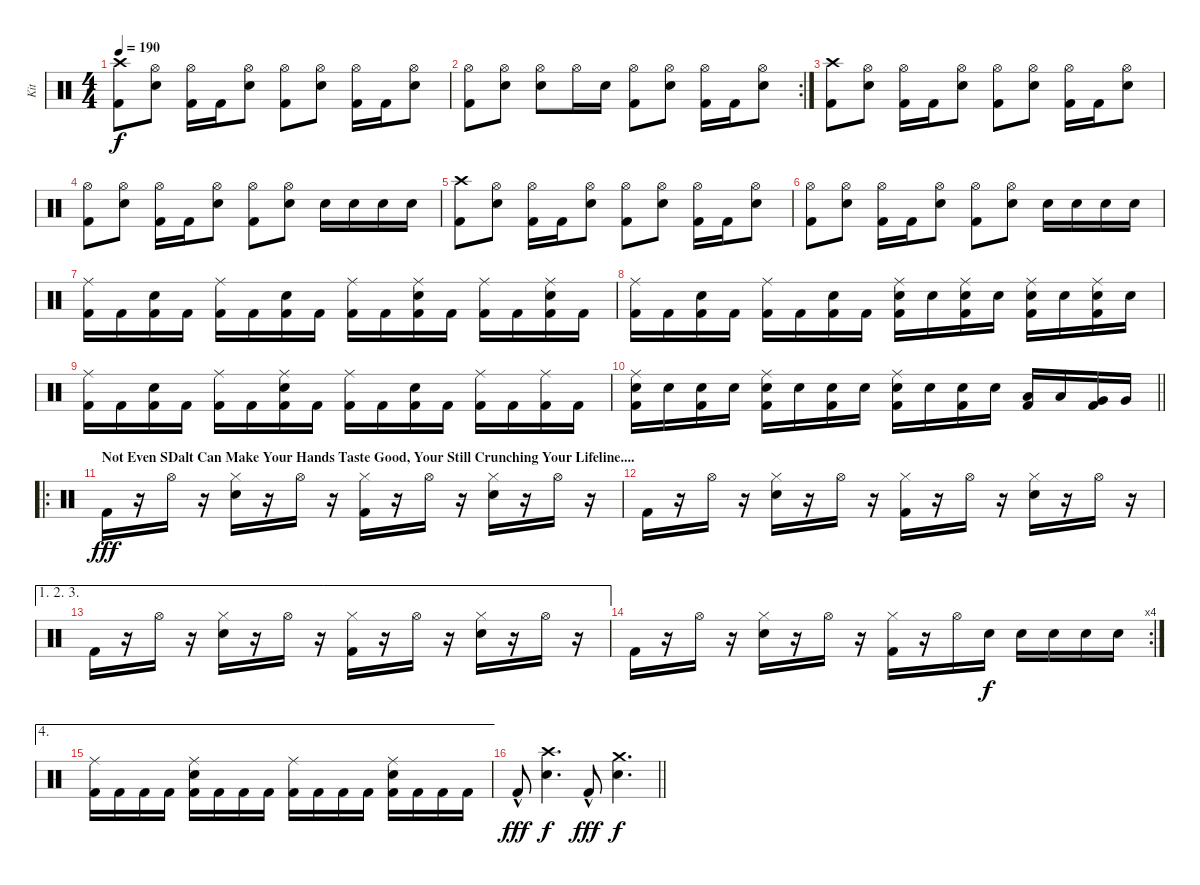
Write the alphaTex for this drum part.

\track ("Kit" "Kit") {instrument percussion}
\staff {score}
\articulation defaults
\ts (4 4)
\tempo 190
\clef neutral
\ks c
("Crash high (hit)" "Kick (hit) 2").8{dy f} ("Hi-Hat (open)" "Electric Snare (hit)").8 ("Hi-Hat (open)" "Kick (hit) 2").16 "Kick (hit) 2".16 ("Hi-Hat (open)" "Electric Snare (hit)").8 ("Hi-Hat (open)" "Kick (hit) 2").8 ("Hi-Hat (open)" "Electric Snare (hit)").8 ("Hi-Hat (open)" "Kick (hit) 2").16 "Kick (hit) 2".16 ("Hi-Hat (open)" "Electric Snare (hit)").8 |
\rc 2
("Hi-Hat (open)" "Kick (hit) 2").8 ("Hi-Hat (open)" "Electric Snare (hit)").8 ("Hi-Hat (open)" "Electric Snare (hit)").8 "Hi-Hat (open)".16 "Electric Snare (hit)".16 ("Hi-Hat (open)" "Kick (hit) 2").8 ("Hi-Hat (open)" "Electric Snare (hit)").8 ("Hi-Hat (open)" "Kick (hit) 2").16 "Kick (hit) 2".16 ("Hi-Hat (open)" "Electric Snare (hit)").8 |
("Crash high (hit)" "Kick (hit) 2").8 ("Hi-Hat (open)" "Electric Snare (hit)").8 ("Hi-Hat (open)" "Kick (hit) 2").16 "Kick (hit) 2".16 ("Hi-Hat (open)" "Electric Snare (hit)").8 ("Hi-Hat (open)" "Kick (hit) 2").8 ("Hi-Hat (open)" "Electric Snare (hit)").8 ("Hi-Hat (open)" "Kick (hit) 2").16 "Kick (hit) 2".16 ("Hi-Hat (open)" "Electric Snare (hit)").8 |
("Hi-Hat (open)" "Kick (hit) 2").8 ("Hi-Hat (open)" "Electric Snare (hit)").8 ("Hi-Hat (open)" "Kick (hit) 2").16 "Kick (hit) 2".16 ("Hi-Hat (open)" "Electric Snare (hit)").8 ("Hi-Hat (open)" "Kick (hit) 2").8 ("Hi-Hat (open)" "Electric Snare (hit)").8 "Electric Snare (hit)".16 "Electric Snare (hit)".16 "Electric Snare (hit)".16 "Electric Snare (hit)".16 |
("Crash high (hit)" "Kick (hit) 2").8 ("Hi-Hat (open)" "Electric Snare (hit)").8 ("Hi-Hat (open)" "Kick (hit) 2").16 "Kick (hit) 2".16 ("Hi-Hat (open)" "Electric Snare (hit)").8 ("Hi-Hat (open)" "Kick (hit) 2").8 ("Hi-Hat (open)" "Electric Snare (hit)").8 ("Hi-Hat (open)" "Kick (hit) 2").16 "Kick (hit) 2".16 ("Hi-Hat (open)" "Electric Snare (hit)").8 |
("Hi-Hat (open)" "Kick (hit) 2").8 ("Hi-Hat (open)" "Electric Snare (hit)").8 ("Hi-Hat (open)" "Kick (hit) 2").16 "Kick (hit) 2".16 ("Hi-Hat (open)" "Electric Snare (hit)").8 ("Hi-Hat (open)" "Kick (hit) 2").8 ("Hi-Hat (open)" "Electric Snare (hit)").8 "Electric Snare (hit)".16 "Electric Snare (hit)".16 "Electric Snare (hit)".16 "Electric Snare (hit)".16 |
("Ride (middle)" "Kick (hit) 2").16 "Kick (hit) 2".16 ("Electric Snare (hit)" "Kick (hit) 2").16 "Kick (hit) 2".16 ("Ride (middle)" "Kick (hit) 2").16 "Kick (hit) 2".16 ("Electric Snare (hit)" "Kick (hit) 2").16 "Kick (hit) 2".16 ("Ride (middle)" "Kick (hit) 2").16 "Kick (hit) 2".16 ("Ride (middle)" "Electric Snare (hit)" "Kick (hit) 2").16 "Kick (hit) 2".16 ("Ride (middle)" "Kick (hit) 2").16 "Kick (hit) 2".16 ("Ride (middle)" "Electric Snare (hit)" "Kick (hit) 2").16 "Kick (hit) 2".16 |
("Ride (middle)" "Kick (hit) 2").16 "Kick (hit) 2".16 ("Electric Snare (hit)" "Kick (hit) 2").16 "Kick (hit) 2".16 ("Ride (middle)" "Kick (hit) 2").16 "Kick (hit) 2".16 ("Electric Snare (hit)" "Kick (hit) 2").16 "Kick (hit) 2".16 ("Ride (middle)" "Electric Snare (hit)" "Kick (hit) 2").16 "Electric Snare (hit)".16 ("Ride (middle)" "Electric Snare (hit)" "Kick (hit) 2").16 "Electric Snare (hit)".16 ("Ride (middle)" "Electric Snare (hit)" "Kick (hit) 2").16 "Electric Snare (hit)".16 ("Ride (middle)" "Electric Snare (hit)" "Kick (hit) 2").16 "Electric Snare (hit)".16 |
("Ride (middle)" "Kick (hit) 2").16 "Kick (hit) 2".16 ("Electric Snare (hit)" "Kick (hit) 2").16 "Kick (hit) 2".16 ("Ride (middle)" "Kick (hit) 2").16 "Kick (hit) 2".16 ("Ride (middle)" "Electric Snare (hit)" "Kick (hit) 2").16 "Kick (hit) 2".16 ("Ride (middle)" "Kick (hit) 2").16 "Kick (hit) 2".16 ("Electric Snare (hit)" "Kick (hit) 2").16 "Kick (hit) 2".16 ("Ride (middle)" "Kick (hit) 2").16 "Kick (hit) 2".16 ("Ride (middle)" "Kick (hit) 2").16 "Kick (hit) 2".16 |
\barLineRight lightlight
("Ride (middle)" "Electric Snare (hit)" "Kick (hit) 2").16 "Electric Snare (hit)".16 ("Electric Snare (hit)" "Kick (hit) 2").16 "Electric Snare (hit)".16 ("Ride (middle)" "Electric Snare (hit)" "Kick (hit) 2").16 "Electric Snare (hit)".16 ("Electric Snare (hit)" "Kick (hit) 2").16 "Electric Snare (hit)".16 ("Ride (middle)" "Electric Snare (hit)" "Kick (hit) 2").16 "Electric Snare (hit)".16 ("Electric Snare (hit)" "Kick (hit) 2").16 "Electric Snare (hit)".16 ("Low Tom (hit)" "Kick (hit) 2").16 "Low Tom (hit)".16 ("Very Low Tom (hit)" "Kick (hit) 2").16 "Very Low Tom (hit)".16 |
\ro
\section ("" "Not Even SDalt Can Make Your Hands Taste Good, Your Still Crunching Your Lifeline....")
"Kick (hit) 2".16{dy fff} r.16 "Hi-Hat (open)".16 r.16 ("Hi-Hat (closed)" "Electric Snare (hit)").16 r.16 "Hi-Hat (open)".16 r.16 ("Hi-Hat (closed)" "Kick (hit) 2").16 r.16 "Hi-Hat (open)".16 r.16 ("Hi-Hat (closed)" "Electric Snare (hit)").16 r.16 "Hi-Hat (open)".16 r.16 |
"Kick (hit) 2".16 r.16 "Hi-Hat (open)".16 r.16 ("Hi-Hat (closed)" "Electric Snare (hit)").16 r.16 "Hi-Hat (open)".16 r.16 ("Hi-Hat (closed)" "Kick (hit) 2").16 r.16 "Hi-Hat (open)".16 r.16 ("Hi-Hat (closed)" "Electric Snare (hit)").16 r.16 "Hi-Hat (open)".16 r.16 |
\ae (1 2 3)
"Kick (hit) 2".16 r.16 "Hi-Hat (open)".16 r.16 ("Hi-Hat (closed)" "Electric Snare (hit)").16 r.16 "Hi-Hat (open)".16 r.16 ("Hi-Hat (closed)" "Kick (hit) 2").16 r.16 "Hi-Hat (open)".16 r.16 ("Hi-Hat (closed)" "Electric Snare (hit)").16 r.16 "Hi-Hat (open)".16 r.16 |
\rc 4 "Kick (hit) 2".16
r.16 "Hi-Hat (open)".16 r.16 ("Hi-Hat (closed)" "Electric Snare (hit)").16 r.16 "Hi-Hat (open)".16 r.16 ("Hi-Hat (closed)" "Kick (hit) 2").16 r.16 "Hi-Hat (open)".16 "Electric Snare (hit)".16{dy f} "Electric Snare (hit)".16 "Electric Snare (hit)".16 "Electric Snare (hit)".16 "Electric Snare (hit)".16 |
\ae 4
("Ride (middle)" "Kick (hit) 2").16 "Kick (hit) 2".16 "Kick (hit) 2".16 "Kick (hit) 2".16 ("Ride (middle)" "Electric Snare (hit)" "Kick (hit) 2").16 "Kick (hit) 2".16 "Kick (hit) 2".16 "Kick (hit) 2".16 ("Ride (middle)" "Kick (hit) 2").16 "Kick (hit) 2".16 "Kick (hit) 2".16 "Kick (hit) 2".16 ("Ride (middle)" "Electric Snare (hit)" "Kick (hit) 2").16 "Kick (hit) 2".16 "Kick (hit) 2".16 "Kick (hit) 2".16 |
\barLineRight lightlight "Kick (hit) 2"{hac}.8{dy fff}
("Crash high (hit)" "Electric Snare (hit)").4{d dy f} "Kick (hit) 2"{hac}.8{dy fff} ("Crash medium (hit)" "Electric Snare (hit)").4{d dy f}
